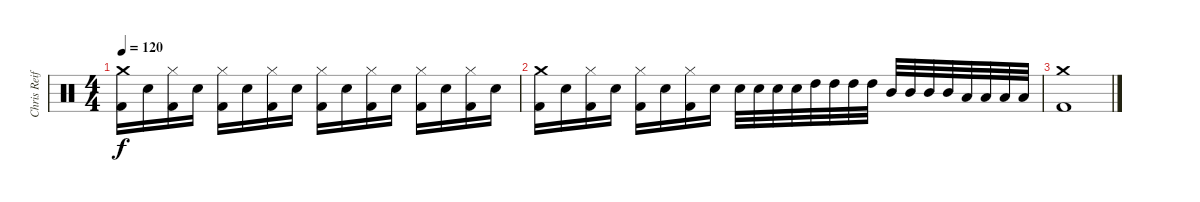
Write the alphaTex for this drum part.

\track ("Chris Reifert" "Chris Reif") {instrument percussion}
\staff {score}
\articulation defaults
\ts (4 4)
\tempo 120
\clef neutral
\ks c
("Crash medium (hit)" "Kick (hit) 2").16{dy f} "Electric Snare (hit)".16 ("Hi-Hat (closed)" "Kick (hit) 2").16 "Electric Snare (hit)".16 ("Hi-Hat (closed)" "Kick (hit) 2").16 "Electric Snare (hit)".16 ("Hi-Hat (closed)" "Kick (hit) 2").16 "Electric Snare (hit)".16 ("Hi-Hat (closed)" "Kick (hit) 2").16 "Electric Snare (hit)".16 ("Hi-Hat (closed)" "Kick (hit) 2").16 "Electric Snare (hit)".16 ("Hi-Hat (closed)" "Kick (hit) 2").16 "Electric Snare (hit)".16 ("Hi-Hat (closed)" "Kick (hit) 2").16 "Electric Snare (hit)".16 |
("Crash medium (hit)" "Kick (hit) 2").16 "Electric Snare (hit)".16 ("Hi-Hat (closed)" "Kick (hit) 2").16 "Electric Snare (hit)".16 ("Hi-Hat (closed)" "Kick (hit) 2").16 "Electric Snare (hit)".16 ("Hi-Hat (closed)" "Kick (hit) 2").16 "Electric Snare (hit)".16 "Electric Snare (hit)".32 "Electric Snare (hit)".32 "Electric Snare (hit)".32 "Electric Snare (hit)".32 "High Tom (hit)".32 "High Tom (hit)".32 "High Tom (hit)".32 "High Tom (hit)".32 "Mid Tom (hit)".32 "Mid Tom (hit)".32 "Mid Tom (hit)".32 "Mid Tom (hit)".32 "Low Tom (hit)".32 "Low Tom (hit)".32 "Low Tom (hit)".32 "Low Tom (hit)".32 |
("Crash medium (hit)" "Kick (hit) 2").1
